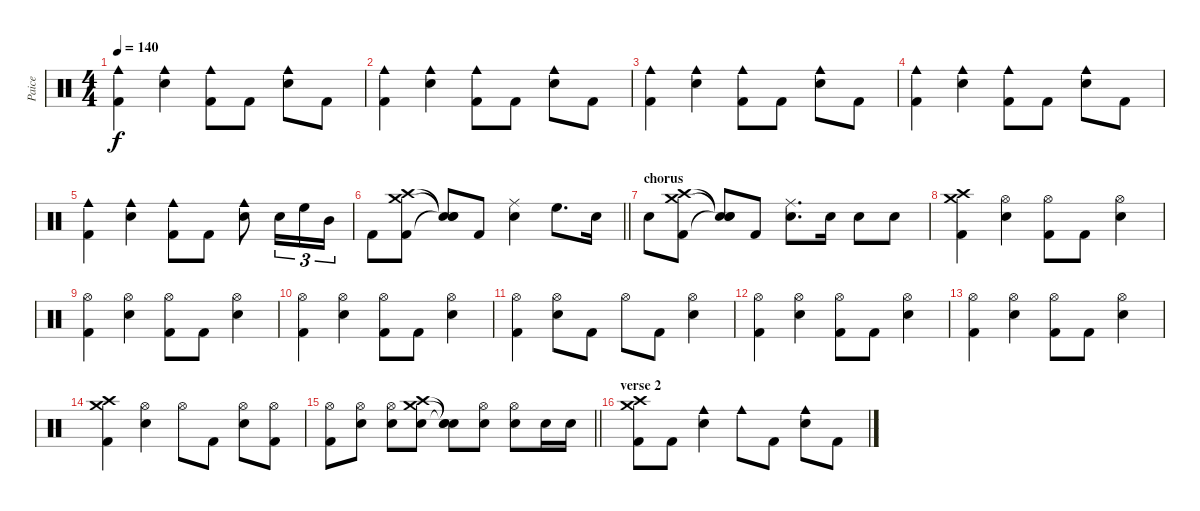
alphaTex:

\track ("Paice" "Paice") {instrument percussion}
\staff {score}
\articulation defaults
\ts (4 4)
\tempo 140
\clef neutral
\ks c
("Cowbell medium (hit)" "Kick (hit) 2").4{dy f} ("Cowbell medium (hit)" "Electric Snare (hit)").4 ("Cowbell medium (hit)" "Kick (hit) 2").8 "Kick (hit) 2".8 ("Cowbell medium (hit)" "Electric Snare (hit)").8 "Kick (hit) 2".8 |
("Cowbell medium (hit)" "Kick (hit) 2").4 ("Cowbell medium (hit)" "Electric Snare (hit)").4 ("Cowbell medium (hit)" "Kick (hit) 2").8 "Kick (hit) 2".8 ("Cowbell medium (hit)" "Electric Snare (hit)").8 "Kick (hit) 2".8 |
("Cowbell medium (hit)" "Kick (hit) 2").4 ("Cowbell medium (hit)" "Electric Snare (hit)").4 ("Cowbell medium (hit)" "Kick (hit) 2").8 "Kick (hit) 2".8 ("Cowbell medium (hit)" "Electric Snare (hit)").8 "Kick (hit) 2".8 |
("Cowbell medium (hit)" "Kick (hit) 2").4 ("Cowbell medium (hit)" "Electric Snare (hit)").4 ("Cowbell medium (hit)" "Kick (hit) 2").8 "Kick (hit) 2".8 ("Cowbell medium (hit)" "Electric Snare (hit)").8 "Kick (hit) 2".8 |
("Cowbell medium (hit)" "Kick (hit) 2").4 ("Cowbell medium (hit)" "Electric Snare (hit)").4 ("Cowbell medium (hit)" "Kick (hit) 2").8 "Kick (hit) 2".8 ("Cowbell medium (hit)" "Electric Snare (hit)").8 "Electric Snare (hit)".16{tu (3 2)} "High Floor Tom (hit)".16{tu (3 2)} "Mid Tom (hit)".16{tu (3 2)} |
\barLineRight lightlight "Kick (hit) 2".8
("Crash high (hit)" "Crash medium (hit)" "Kick (hit) 2").8 ("Snare (hit)"{t} "Snare (hit)"{t} "Snare (hit)"{t}).8 "Kick (hit) 2".8 ("Ride (middle)" "Electric Snare (hit)").4 "High Floor Tom (hit)".8{d} "Electric Snare (hit)".16 |
\section ("" "chorus")
"Electric Snare (hit)".8 ("Crash high (hit)" "Crash medium (hit)" "Kick (hit) 2").8 ("Snare (hit)"{t} "Snare (hit)"{t} "Snare (hit)"{t}).8 "Kick (hit) 2".8 ("Ride (middle)" "Electric Snare (hit)").8{d} "Electric Snare (hit)".16 "Electric Snare (hit)".8 "Electric Snare (hit)".8 |
("Crash high (hit)" "Crash medium (hit)" "Kick (hit) 2").4 ("Hi-Hat (open)" "Electric Snare (hit)").4 ("Hi-Hat (open)" "Kick (hit) 2").8 "Kick (hit) 2".8 ("Hi-Hat (open)" "Electric Snare (hit)").4 |
("Hi-Hat (open)" "Kick (hit) 2").4 ("Hi-Hat (open)" "Electric Snare (hit)").4 ("Hi-Hat (open)" "Kick (hit) 2").8 "Kick (hit) 2".8 ("Hi-Hat (open)" "Electric Snare (hit)").4 |
("Hi-Hat (open)" "Kick (hit) 2").4 ("Hi-Hat (open)" "Electric Snare (hit)").4 ("Hi-Hat (open)" "Kick (hit) 2").8 "Kick (hit) 2".8 ("Hi-Hat (open)" "Electric Snare (hit)").4 |
("Hi-Hat (open)" "Kick (hit) 2").4 ("Hi-Hat (open)" "Electric Snare (hit)").8 "Kick (hit) 2".8 "Hi-Hat (open)".8 "Kick (hit) 2".8 ("Hi-Hat (open)" "Electric Snare (hit)").4 |
("Hi-Hat (open)" "Kick (hit) 2").4 ("Hi-Hat (open)" "Electric Snare (hit)").4 ("Hi-Hat (open)" "Kick (hit) 2").8 "Kick (hit) 2".8 ("Hi-Hat (open)" "Electric Snare (hit)").4 |
("Hi-Hat (open)" "Kick (hit) 2").4 ("Hi-Hat (open)" "Electric Snare (hit)").4 ("Hi-Hat (open)" "Kick (hit) 2").8 "Kick (hit) 2".8 ("Hi-Hat (open)" "Electric Snare (hit)").4 |
("Crash high (hit)" "Crash medium (hit)" "Kick (hit) 2").4 ("Hi-Hat (open)" "Electric Snare (hit)").4 "Hi-Hat (open)".8 "Kick (hit) 2".8 ("Hi-Hat (open)" "Electric Snare (hit)").8 ("Hi-Hat (open)" "Kick (hit) 2").8 |
\barLineRight lightlight
("Hi-Hat (open)" "Kick (hit) 2").8 ("Hi-Hat (open)" "Electric Snare (hit)").8 ("Hi-Hat (open)" "Electric Snare (hit)").8 ("Crash high (hit)" "Crash medium (hit)" "Electric Snare (hit)").8 ("Snare (hit)"{t} "Snare (hit)"{t} "Snare (hit)"{t}).8 ("Hi-Hat (open)" "Electric Snare (hit)").8 ("Hi-Hat (open)" "Electric Snare (hit)").8 "Electric Snare (hit)".16 "Electric Snare (hit)".16 |
\section ("" "verse 2")
("Crash high (hit)" "Crash medium (hit)" "Kick (hit) 2").8 "Kick (hit) 2".8 ("Cowbell medium (hit)" "Electric Snare (hit)").4 "Cowbell medium (hit)".8 "Kick (hit) 2".8 ("Cowbell medium (hit)" "Electric Snare (hit)").8 "Kick (hit) 2".8
